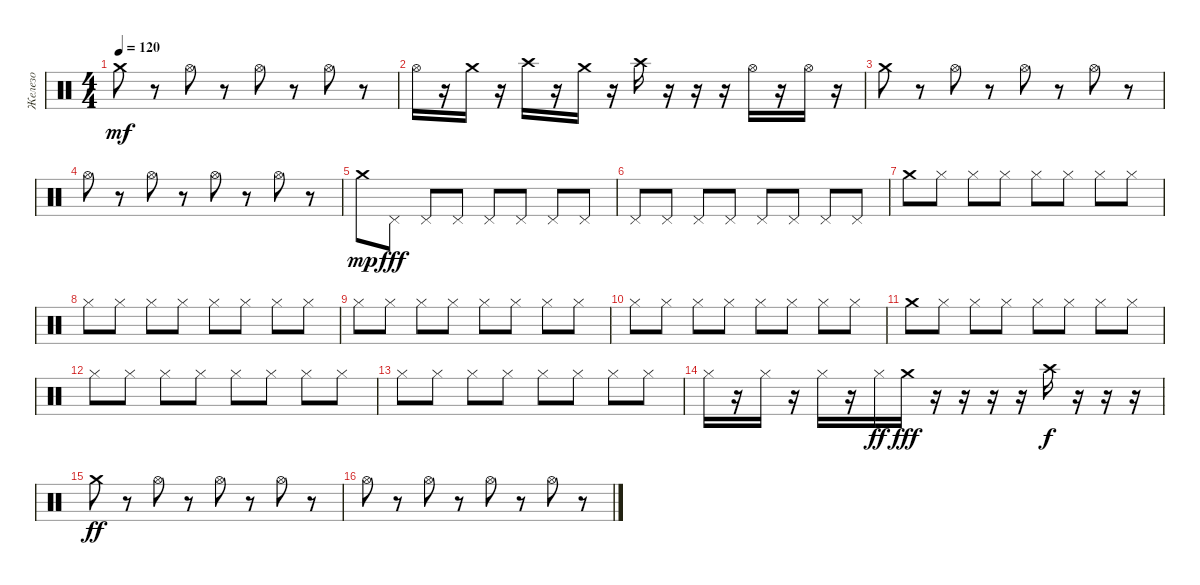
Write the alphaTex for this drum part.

\track ("Железо" "Железо") {instrument percussion}
\staff {score}
\articulation defaults
\ts (4 4)
\tempo 120
\clef neutral
\ks c "Crash medium (hit)".8{dy mf}
r.8 "Hi-Hat (open)".8 r.8 "Hi-Hat (open)".8 r.8 "Hi-Hat (open)".8 r.8 |
"Hi-Hat (open)".16 r.16 "Crash medium (hit)".16 r.16 "Crash high (hit)".16 r.16 "Crash medium (hit)".16 r.16 "Crash high (hit)".16 r.16 r.16 r.16 "Hi-Hat (open)".16 r.16 "Hi-Hat (open)".16 r.16 |
"Crash medium (hit)".8 r.8 "Hi-Hat (open)".8 r.8 "Hi-Hat (open)".8 r.8 "Hi-Hat (open)".8 r.8 |
"Hi-Hat (open)".8 r.8 "Hi-Hat (open)".8 r.8 "Hi-Hat (open)".8 r.8 "Hi-Hat (open)".8 r.8 |
"Crash medium (hit)".8{dy mp} "Pedal Hi-Hat (hit)".8{dy fff} "Pedal Hi-Hat (hit)".8 "Pedal Hi-Hat (hit)".8 "Pedal Hi-Hat (hit)".8 "Pedal Hi-Hat (hit)".8 "Pedal Hi-Hat (hit)".8 "Pedal Hi-Hat (hit)".8 |
"Pedal Hi-Hat (hit)".8 "Pedal Hi-Hat (hit)".8 "Pedal Hi-Hat (hit)".8 "Pedal Hi-Hat (hit)".8 "Pedal Hi-Hat (hit)".8 "Pedal Hi-Hat (hit)".8 "Pedal Hi-Hat (hit)".8 "Pedal Hi-Hat (hit)".8 |
"Crash medium (hit)".8 "Hi-Hat (closed)".8 "Hi-Hat (closed)".8 "Hi-Hat (closed)".8 "Hi-Hat (closed)".8 "Hi-Hat (closed)".8 "Hi-Hat (closed)".8 "Hi-Hat (closed)".8 |
"Hi-Hat (closed)".8 "Hi-Hat (closed)".8 "Hi-Hat (closed)".8 "Hi-Hat (closed)".8 "Hi-Hat (closed)".8 "Hi-Hat (closed)".8 "Hi-Hat (closed)".8 "Hi-Hat (closed)".8 |
"Hi-Hat (closed)".8 "Hi-Hat (closed)".8 "Hi-Hat (closed)".8 "Hi-Hat (closed)".8 "Hi-Hat (closed)".8 "Hi-Hat (closed)".8 "Hi-Hat (closed)".8 "Hi-Hat (closed)".8 |
"Hi-Hat (closed)".8 "Hi-Hat (closed)".8 "Hi-Hat (closed)".8 "Hi-Hat (closed)".8 "Hi-Hat (closed)".8 "Hi-Hat (closed)".8 "Hi-Hat (closed)".8 "Hi-Hat (closed)".8 |
"Crash medium (hit)".8 "Hi-Hat (closed)".8 "Hi-Hat (closed)".8 "Hi-Hat (closed)".8 "Hi-Hat (closed)".8 "Hi-Hat (closed)".8 "Hi-Hat (closed)".8 "Hi-Hat (closed)".8 |
"Hi-Hat (closed)".8 "Hi-Hat (closed)".8 "Hi-Hat (closed)".8 "Hi-Hat (closed)".8 "Hi-Hat (closed)".8 "Hi-Hat (closed)".8 "Hi-Hat (closed)".8 "Hi-Hat (closed)".8 |
"Hi-Hat (closed)".8 "Hi-Hat (closed)".8 "Hi-Hat (closed)".8 "Hi-Hat (closed)".8 "Hi-Hat (closed)".8 "Hi-Hat (closed)".8 "Hi-Hat (closed)".8 "Hi-Hat (closed)".8 |
"Hi-Hat (closed)".16 r.16 "Hi-Hat (closed)".16 r.16 "Hi-Hat (closed)".16 r.16 "Hi-Hat (closed)".16{dy ff} "Crash medium (hit)".16{dy fff} r.16 r.16 r.16 r.16 "Crash high (hit)".16{dy f} r.16 r.16 r.16 |
"Crash medium (hit)".8{dy ff} r.8 "Hi-Hat (open)".8 r.8 "Hi-Hat (open)".8 r.8 "Hi-Hat (open)".8 r.8 |
"Hi-Hat (open)".8 r.8 "Hi-Hat (open)".8 r.8 "Hi-Hat (open)".8 r.8 "Hi-Hat (open)".8 r.8
